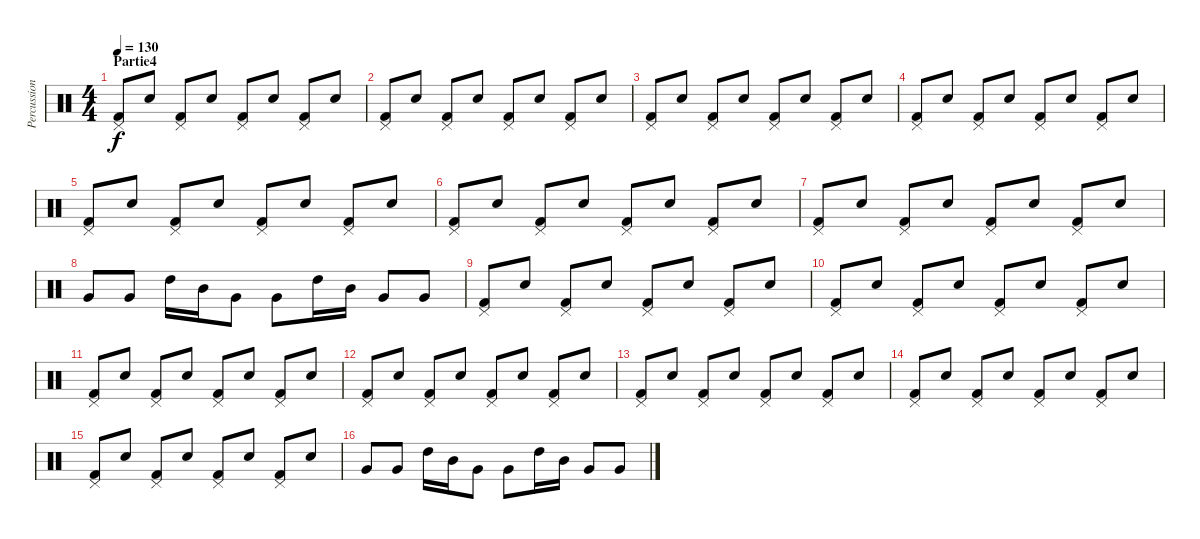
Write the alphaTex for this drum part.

\track ("Percussions" "Percussion") {instrument percussion}
\staff {score}
\articulation defaults
\ts (4 4)
\section ("" "Partie4")
\tempo 130
\clef neutral
\ks c
("Pedal Hi-Hat (hit)" "Kick (hit) 2").8{dy f} "Snare (hit) 2".8 ("Pedal Hi-Hat (hit)" "Kick (hit) 2").8 "Snare (hit) 2".8 ("Pedal Hi-Hat (hit)" "Kick (hit) 2").8 "Snare (hit) 2".8 ("Pedal Hi-Hat (hit)" "Kick (hit) 2").8 "Snare (hit) 2".8 |
("Pedal Hi-Hat (hit)" "Kick (hit) 2").8 "Snare (hit) 2".8 ("Pedal Hi-Hat (hit)" "Kick (hit) 2").8 "Snare (hit) 2".8 ("Pedal Hi-Hat (hit)" "Kick (hit) 2").8 "Snare (hit) 2".8 ("Pedal Hi-Hat (hit)" "Kick (hit) 2").8 "Snare (hit) 2".8 |
("Pedal Hi-Hat (hit)" "Kick (hit) 2").8 "Snare (hit) 2".8 ("Pedal Hi-Hat (hit)" "Kick (hit) 2").8 "Snare (hit) 2".8 ("Pedal Hi-Hat (hit)" "Kick (hit) 2").8 "Snare (hit) 2".8 ("Pedal Hi-Hat (hit)" "Kick (hit) 2").8 "Snare (hit) 2".8 |
("Pedal Hi-Hat (hit)" "Kick (hit) 2").8 "Snare (hit) 2".8 ("Pedal Hi-Hat (hit)" "Kick (hit) 2").8 "Snare (hit) 2".8 ("Pedal Hi-Hat (hit)" "Kick (hit) 2").8 "Snare (hit) 2".8 ("Pedal Hi-Hat (hit)" "Kick (hit) 2").8 "Snare (hit) 2".8 |
("Pedal Hi-Hat (hit)" "Kick (hit) 2").8 "Snare (hit) 2".8 ("Pedal Hi-Hat (hit)" "Kick (hit) 2").8 "Snare (hit) 2".8 ("Pedal Hi-Hat (hit)" "Kick (hit) 2").8 "Snare (hit) 2".8 ("Pedal Hi-Hat (hit)" "Kick (hit) 2").8 "Snare (hit) 2".8 |
("Pedal Hi-Hat (hit)" "Kick (hit) 2").8 "Snare (hit) 2".8 ("Pedal Hi-Hat (hit)" "Kick (hit) 2").8 "Snare (hit) 2".8 ("Pedal Hi-Hat (hit)" "Kick (hit) 2").8 "Snare (hit) 2".8 ("Pedal Hi-Hat (hit)" "Kick (hit) 2").8 "Snare (hit) 2".8 |
("Pedal Hi-Hat (hit)" "Kick (hit) 2").8 "Snare (hit) 2".8 ("Pedal Hi-Hat (hit)" "Kick (hit) 2").8 "Snare (hit) 2".8 ("Pedal Hi-Hat (hit)" "Kick (hit) 2").8 "Snare (hit) 2".8 ("Pedal Hi-Hat (hit)" "Kick (hit) 2").8 "Snare (hit) 2".8 |
"Very Low Tom (hit)".8 "Very Low Tom (hit)".8 "High Tom (hit)".16 "Mid Tom (hit)".16 "Very Low Tom (hit)".8 "Very Low Tom (hit)".8 "High Tom (hit)".16 "Mid Tom (hit)".16 "Very Low Tom (hit)".8 "Very Low Tom (hit)".8 |
("Pedal Hi-Hat (hit)" "Kick (hit) 2").8 "Snare (hit) 2".8 ("Pedal Hi-Hat (hit)" "Kick (hit) 2").8 "Snare (hit) 2".8 ("Pedal Hi-Hat (hit)" "Kick (hit) 2").8 "Snare (hit) 2".8 ("Pedal Hi-Hat (hit)" "Kick (hit) 2").8 "Snare (hit) 2".8 |
("Pedal Hi-Hat (hit)" "Kick (hit) 2").8 "Snare (hit) 2".8 ("Pedal Hi-Hat (hit)" "Kick (hit) 2").8 "Snare (hit) 2".8 ("Pedal Hi-Hat (hit)" "Kick (hit) 2").8 "Snare (hit) 2".8 ("Pedal Hi-Hat (hit)" "Kick (hit) 2").8 "Snare (hit) 2".8 |
("Pedal Hi-Hat (hit)" "Kick (hit) 2").8 "Snare (hit) 2".8 ("Pedal Hi-Hat (hit)" "Kick (hit) 2").8 "Snare (hit) 2".8 ("Pedal Hi-Hat (hit)" "Kick (hit) 2").8 "Snare (hit) 2".8 ("Pedal Hi-Hat (hit)" "Kick (hit) 2").8 "Snare (hit) 2".8 |
("Pedal Hi-Hat (hit)" "Kick (hit) 2").8 "Snare (hit) 2".8 ("Pedal Hi-Hat (hit)" "Kick (hit) 2").8 "Snare (hit) 2".8 ("Pedal Hi-Hat (hit)" "Kick (hit) 2").8 "Snare (hit) 2".8 ("Pedal Hi-Hat (hit)" "Kick (hit) 2").8 "Snare (hit) 2".8 |
("Pedal Hi-Hat (hit)" "Kick (hit) 2").8 "Snare (hit) 2".8 ("Pedal Hi-Hat (hit)" "Kick (hit) 2").8 "Snare (hit) 2".8 ("Pedal Hi-Hat (hit)" "Kick (hit) 2").8 "Snare (hit) 2".8 ("Pedal Hi-Hat (hit)" "Kick (hit) 2").8 "Snare (hit) 2".8 |
("Pedal Hi-Hat (hit)" "Kick (hit) 2").8 "Snare (hit) 2".8 ("Pedal Hi-Hat (hit)" "Kick (hit) 2").8 "Snare (hit) 2".8 ("Pedal Hi-Hat (hit)" "Kick (hit) 2").8 "Snare (hit) 2".8 ("Pedal Hi-Hat (hit)" "Kick (hit) 2").8 "Snare (hit) 2".8 |
("Pedal Hi-Hat (hit)" "Kick (hit) 2").8 "Snare (hit) 2".8 ("Pedal Hi-Hat (hit)" "Kick (hit) 2").8 "Snare (hit) 2".8 ("Pedal Hi-Hat (hit)" "Kick (hit) 2").8 "Snare (hit) 2".8 ("Pedal Hi-Hat (hit)" "Kick (hit) 2").8 "Snare (hit) 2".8 |
"Very Low Tom (hit)".8 "Very Low Tom (hit)".8 "High Tom (hit)".16 "Mid Tom (hit)".16 "Very Low Tom (hit)".8 "Very Low Tom (hit)".8 "High Tom (hit)".16 "Mid Tom (hit)".16 "Very Low Tom (hit)".8 "Very Low Tom (hit)".8
